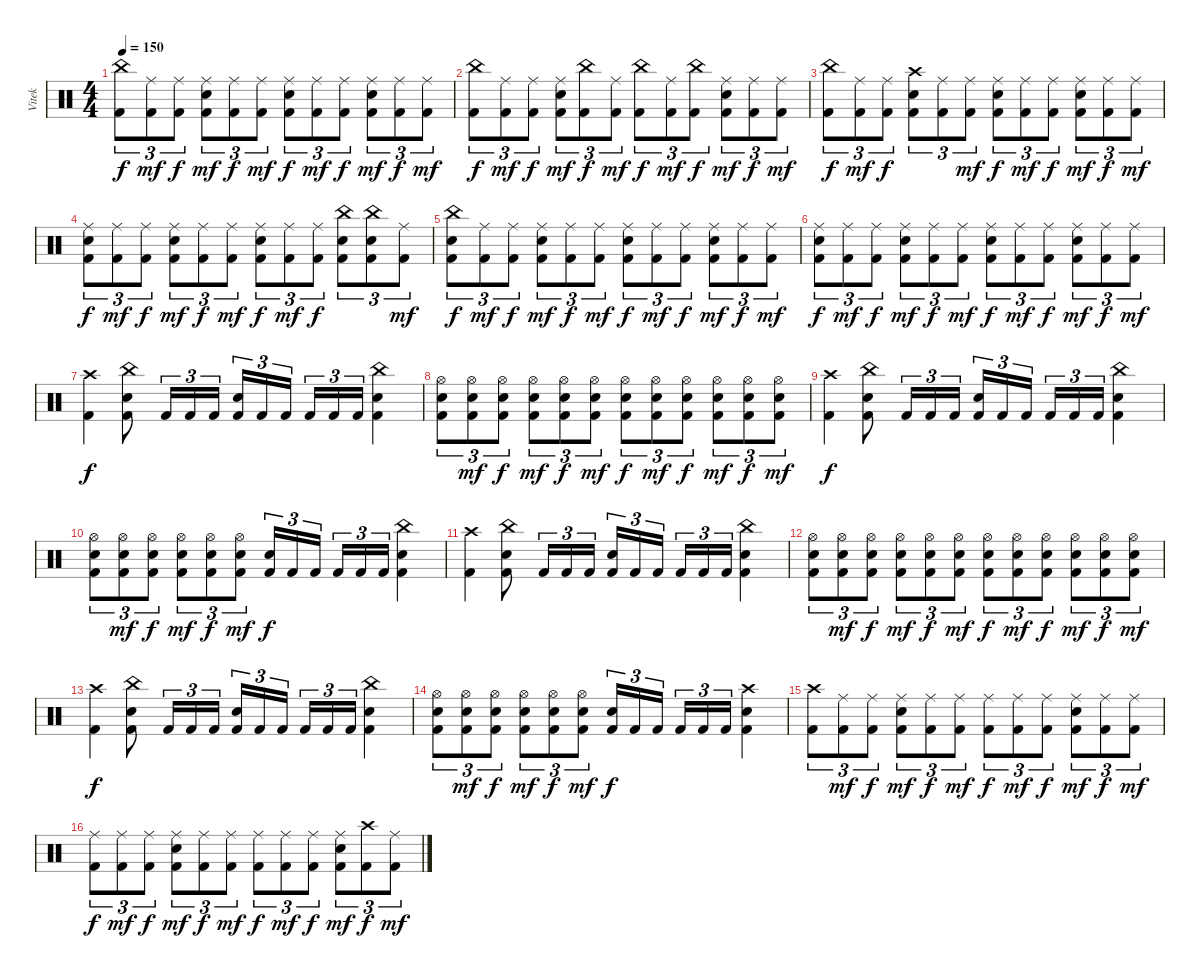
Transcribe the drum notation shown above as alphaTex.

\track ("Vitek" "Vitek") {instrument percussion}
\staff {score}
\articulation defaults
\ts (4 4)
\tempo 150
\clef neutral
\ks c
("China (hit)" "Kick (hit) 2").8{tu (3 2) dy f} ("Ride (middle)" "Kick (hit) 2").8{tu (3 2) dy mf} ("Ride (middle)" "Kick (hit) 2").8{tu (3 2) dy f} ("Ride (middle)" "Electric Snare (hit)" "Kick (hit) 2").8{tu (3 2) dy mf} ("Ride (middle)" "Kick (hit) 2").8{tu (3 2) dy f} ("Ride (middle)" "Kick (hit) 2").8{tu (3 2) dy mf} ("Ride (middle)" "Electric Snare (hit)" "Kick (hit) 2").8{tu (3 2) dy f} ("Ride (middle)" "Kick (hit) 2").8{tu (3 2) dy mf} ("Ride (middle)" "Kick (hit) 2").8{tu (3 2) dy f} ("Ride (middle)" "Electric Snare (hit)" "Kick (hit) 2").8{tu (3 2) dy mf} ("Ride (middle)" "Kick (hit) 2").8{tu (3 2) dy f} ("Ride (middle)" "Kick (hit) 2").8{tu (3 2) dy mf} |
("China (hit)" "Kick (hit) 2").8{tu (3 2) dy f} ("Ride (middle)" "Kick (hit) 2").8{tu (3 2) dy mf} ("Ride (middle)" "Kick (hit) 2").8{tu (3 2) dy f} ("Ride (middle)" "Electric Snare (hit)" "Kick (hit) 2").8{tu (3 2) dy mf} ("China (hit)" "Kick (hit) 2").8{tu (3 2) dy f} ("Ride (middle)" "Kick (hit) 2").8{tu (3 2) dy mf} ("China (hit)" "Kick (hit) 2").8{tu (3 2) dy f} ("Ride (middle)" "Kick (hit) 2").8{tu (3 2) dy mf} ("China (hit)" "Kick (hit) 2").8{tu (3 2) dy f} ("Ride (middle)" "Electric Snare (hit)" "Kick (hit) 2").8{tu (3 2) dy mf} ("Ride (middle)" "Kick (hit) 2").8{tu (3 2) dy f} ("Ride (middle)" "Kick (hit) 2").8{tu (3 2) dy mf} |
("China (hit)" "Kick (hit) 2").8{tu (3 2) dy f} ("Ride (middle)" "Kick (hit) 2").8{tu (3 2) dy mf} ("Ride (middle)" "Kick (hit) 2").8{tu (3 2) dy f} ("Crash high (hit)" "Electric Snare (hit)" "Kick (hit) 2").8{tu (3 2)} ("Ride (middle)" "Kick (hit) 2").8{tu (3 2)} ("Ride (middle)" "Kick (hit) 2").8{tu (3 2) dy mf} ("Ride (middle)" "Electric Snare (hit)" "Kick (hit) 2").8{tu (3 2) dy f} ("Ride (middle)" "Kick (hit) 2").8{tu (3 2) dy mf} ("Ride (middle)" "Kick (hit) 2").8{tu (3 2) dy f} ("Ride (middle)" "Electric Snare (hit)" "Kick (hit) 2").8{tu (3 2) dy mf} ("Ride (middle)" "Kick (hit) 2").8{tu (3 2) dy f} ("Ride (middle)" "Kick (hit) 2").8{tu (3 2) dy mf} |
("Ride (middle)" "Electric Snare (hit)" "Kick (hit) 2").8{tu (3 2) dy f} ("Ride (middle)" "Kick (hit) 2").8{tu (3 2) dy mf} ("Ride (middle)" "Kick (hit) 2").8{tu (3 2) dy f} ("Ride (middle)" "Electric Snare (hit)" "Kick (hit) 2").8{tu (3 2) dy mf} ("Ride (middle)" "Kick (hit) 2").8{tu (3 2) dy f} ("Ride (middle)" "Kick (hit) 2").8{tu (3 2) dy mf} ("Ride (middle)" "Electric Snare (hit)" "Kick (hit) 2").8{tu (3 2) dy f} ("Ride (middle)" "Kick (hit) 2").8{tu (3 2) dy mf} ("Ride (middle)" "Kick (hit) 2").8{tu (3 2) dy f} ("China (hit)" "Electric Snare (hit)" "Kick (hit) 2").8{tu (3 2)} ("China (hit)" "Electric Snare (hit)" "Kick (hit) 2").8{tu (3 2)} ("Ride (middle)" "Kick (hit) 2").8{tu (3 2) dy mf} |
("China (hit)" "Electric Snare (hit)" "Kick (hit) 2").8{tu (3 2) dy f} ("Ride (middle)" "Kick (hit) 2").8{tu (3 2) dy mf} ("Ride (middle)" "Kick (hit) 2").8{tu (3 2) dy f} ("Ride (middle)" "Electric Snare (hit)" "Kick (hit) 2").8{tu (3 2) dy mf} ("Ride (middle)" "Kick (hit) 2").8{tu (3 2) dy f} ("Ride (middle)" "Kick (hit) 2").8{tu (3 2) dy mf} ("Ride (middle)" "Electric Snare (hit)" "Kick (hit) 2").8{tu (3 2) dy f} ("Ride (middle)" "Kick (hit) 2").8{tu (3 2) dy mf} ("Ride (middle)" "Kick (hit) 2").8{tu (3 2) dy f} ("Ride (middle)" "Electric Snare (hit)" "Kick (hit) 2").8{tu (3 2) dy mf} ("Ride (middle)" "Kick (hit) 2").8{tu (3 2) dy f} ("Ride (middle)" "Kick (hit) 2").8{tu (3 2) dy mf} |
("Ride (middle)" "Electric Snare (hit)" "Kick (hit) 2").8{tu (3 2) dy f} ("Ride (middle)" "Kick (hit) 2").8{tu (3 2) dy mf} ("Ride (middle)" "Kick (hit) 2").8{tu (3 2) dy f} ("Ride (middle)" "Electric Snare (hit)" "Kick (hit) 2").8{tu (3 2) dy mf} ("Ride (middle)" "Kick (hit) 2").8{tu (3 2) dy f} ("Ride (middle)" "Kick (hit) 2").8{tu (3 2) dy mf} ("Ride (middle)" "Electric Snare (hit)" "Kick (hit) 2").8{tu (3 2) dy f} ("Ride (middle)" "Kick (hit) 2").8{tu (3 2) dy mf} ("Ride (middle)" "Kick (hit) 2").8{tu (3 2) dy f} ("Ride (middle)" "Electric Snare (hit)" "Kick (hit) 2").8{tu (3 2) dy mf} ("Ride (middle)" "Kick (hit) 2").8{tu (3 2) dy f} ("Ride (middle)" "Kick (hit) 2").8{tu (3 2) dy mf} |
("Crash high (hit)" "Kick (hit) 2").4{dy f} ("China (hit)" "Electric Snare (hit)" "Kick (hit) 2").8 "Kick (hit) 2".16{tu (3 2)} "Kick (hit) 2".16{tu (3 2)} "Kick (hit) 2".16{tu (3 2)} ("Electric Snare (hit)" "Kick (hit) 2").16{tu (3 2)} "Kick (hit) 2".16{tu (3 2)} "Kick (hit) 2".16{tu (3 2) beam splitsecondary} "Kick (hit) 2".16{tu (3 2)} "Kick (hit) 2".16{tu (3 2)} "Kick (hit) 2".16{tu (3 2)} ("China (hit)" "Electric Snare (hit)" "Kick (hit) 2").4 |
("Hi-Hat (open)" "Electric Snare (hit)" "Kick (hit) 2").8{tu (3 2)} ("Hi-Hat (open)" "Electric Snare (hit)" "Kick (hit) 2").8{tu (3 2) dy mf} ("Hi-Hat (open)" "Electric Snare (hit)" "Kick (hit) 2").8{tu (3 2) dy f} ("Hi-Hat (open)" "Electric Snare (hit)" "Kick (hit) 2").8{tu (3 2) dy mf} ("Hi-Hat (open)" "Electric Snare (hit)" "Kick (hit) 2").8{tu (3 2) dy f} ("Hi-Hat (open)" "Electric Snare (hit)" "Kick (hit) 2").8{tu (3 2) dy mf} ("Hi-Hat (open)" "Electric Snare (hit)" "Kick (hit) 2").8{tu (3 2) dy f} ("Hi-Hat (open)" "Electric Snare (hit)" "Kick (hit) 2").8{tu (3 2) dy mf} ("Hi-Hat (open)" "Electric Snare (hit)" "Kick (hit) 2").8{tu (3 2) dy f} ("Hi-Hat (open)" "Electric Snare (hit)" "Kick (hit) 2").8{tu (3 2) dy mf} ("Hi-Hat (open)" "Electric Snare (hit)" "Kick (hit) 2").8{tu (3 2) dy f} ("Hi-Hat (open)" "Electric Snare (hit)" "Kick (hit) 2").8{tu (3 2) dy mf} |
("Crash high (hit)" "Kick (hit) 2").4{dy f} ("China (hit)" "Electric Snare (hit)" "Kick (hit) 2").8 "Kick (hit) 2".16{tu (3 2)} "Kick (hit) 2".16{tu (3 2)} "Kick (hit) 2".16{tu (3 2)} ("Electric Snare (hit)" "Kick (hit) 2").16{tu (3 2)} "Kick (hit) 2".16{tu (3 2)} "Kick (hit) 2".16{tu (3 2) beam splitsecondary} "Kick (hit) 2".16{tu (3 2)} "Kick (hit) 2".16{tu (3 2)} "Kick (hit) 2".16{tu (3 2)} ("China (hit)" "Electric Snare (hit)" "Kick (hit) 2").4 |
("Hi-Hat (open)" "Electric Snare (hit)" "Kick (hit) 2").8{tu (3 2)} ("Hi-Hat (open)" "Electric Snare (hit)" "Kick (hit) 2").8{tu (3 2) dy mf} ("Hi-Hat (open)" "Electric Snare (hit)" "Kick (hit) 2").8{tu (3 2) dy f} ("Hi-Hat (open)" "Electric Snare (hit)" "Kick (hit) 2").8{tu (3 2) dy mf} ("Hi-Hat (open)" "Electric Snare (hit)" "Kick (hit) 2").8{tu (3 2) dy f} ("Hi-Hat (open)" "Electric Snare (hit)" "Kick (hit) 2").8{tu (3 2) dy mf} ("Electric Snare (hit)" "Kick (hit) 2").16{tu (3 2) dy f} "Kick (hit) 2".16{tu (3 2)} "Kick (hit) 2".16{tu (3 2) beam splitsecondary} "Kick (hit) 2".16{tu (3 2)} "Kick (hit) 2".16{tu (3 2)} "Kick (hit) 2".16{tu (3 2)} ("China (hit)" "Electric Snare (hit)" "Kick (hit) 2").4 |
("Crash high (hit)" "Kick (hit) 2").4 ("China (hit)" "Electric Snare (hit)" "Kick (hit) 2").8 "Kick (hit) 2".16{tu (3 2)} "Kick (hit) 2".16{tu (3 2)} "Kick (hit) 2".16{tu (3 2)} ("Electric Snare (hit)" "Kick (hit) 2").16{tu (3 2)} "Kick (hit) 2".16{tu (3 2)} "Kick (hit) 2".16{tu (3 2) beam splitsecondary} "Kick (hit) 2".16{tu (3 2)} "Kick (hit) 2".16{tu (3 2)} "Kick (hit) 2".16{tu (3 2)} ("China (hit)" "Electric Snare (hit)" "Kick (hit) 2").4 |
("Hi-Hat (open)" "Electric Snare (hit)" "Kick (hit) 2").8{tu (3 2)} ("Hi-Hat (open)" "Electric Snare (hit)" "Kick (hit) 2").8{tu (3 2) dy mf} ("Hi-Hat (open)" "Electric Snare (hit)" "Kick (hit) 2").8{tu (3 2) dy f} ("Hi-Hat (open)" "Electric Snare (hit)" "Kick (hit) 2").8{tu (3 2) dy mf} ("Hi-Hat (open)" "Electric Snare (hit)" "Kick (hit) 2").8{tu (3 2) dy f} ("Hi-Hat (open)" "Electric Snare (hit)" "Kick (hit) 2").8{tu (3 2) dy mf} ("Hi-Hat (open)" "Electric Snare (hit)" "Kick (hit) 2").8{tu (3 2) dy f} ("Hi-Hat (open)" "Electric Snare (hit)" "Kick (hit) 2").8{tu (3 2) dy mf} ("Hi-Hat (open)" "Electric Snare (hit)" "Kick (hit) 2").8{tu (3 2) dy f} ("Hi-Hat (open)" "Electric Snare (hit)" "Kick (hit) 2").8{tu (3 2) dy mf} ("Hi-Hat (open)" "Electric Snare (hit)" "Kick (hit) 2").8{tu (3 2) dy f} ("Hi-Hat (open)" "Electric Snare (hit)" "Kick (hit) 2").8{tu (3 2) dy mf} |
("Crash high (hit)" "Kick (hit) 2").4{dy f} ("China (hit)" "Electric Snare (hit)" "Kick (hit) 2").8 "Kick (hit) 2".16{tu (3 2)} "Kick (hit) 2".16{tu (3 2)} "Kick (hit) 2".16{tu (3 2)} ("Electric Snare (hit)" "Kick (hit) 2").16{tu (3 2)} "Kick (hit) 2".16{tu (3 2)} "Kick (hit) 2".16{tu (3 2) beam splitsecondary} "Kick (hit) 2".16{tu (3 2)} "Kick (hit) 2".16{tu (3 2)} "Kick (hit) 2".16{tu (3 2)} ("China (hit)" "Electric Snare (hit)" "Kick (hit) 2").4 |
("Hi-Hat (open)" "Electric Snare (hit)" "Kick (hit) 2").8{tu (3 2)} ("Hi-Hat (open)" "Electric Snare (hit)" "Kick (hit) 2").8{tu (3 2) dy mf} ("Hi-Hat (open)" "Electric Snare (hit)" "Kick (hit) 2").8{tu (3 2) dy f} ("Hi-Hat (open)" "Electric Snare (hit)" "Kick (hit) 2").8{tu (3 2) dy mf} ("Hi-Hat (open)" "Electric Snare (hit)" "Kick (hit) 2").8{tu (3 2) dy f} ("Hi-Hat (open)" "Electric Snare (hit)" "Kick (hit) 2").8{tu (3 2) dy mf} ("Electric Snare (hit)" "Kick (hit) 2").16{tu (3 2) dy f} "Kick (hit) 2".16{tu (3 2)} "Kick (hit) 2".16{tu (3 2) beam splitsecondary} "Kick (hit) 2".16{tu (3 2)} "Kick (hit) 2".16{tu (3 2)} "Kick (hit) 2".16{tu (3 2)} ("Crash high (hit)" "Electric Snare (hit)" "Kick (hit) 2").4 |
("Crash high (hit)" "Kick (hit) 2").8{tu (3 2)} ("Ride (middle)" "Kick (hit) 2").8{tu (3 2) dy mf} ("Ride (middle)" "Kick (hit) 2").8{tu (3 2) dy f} ("Ride (middle)" "Electric Snare (hit)" "Kick (hit) 2").8{tu (3 2) dy mf} ("Ride (middle)" "Kick (hit) 2").8{tu (3 2) dy f} ("Ride (middle)" "Kick (hit) 2").8{tu (3 2) dy mf} ("Ride (middle)" "Kick (hit) 2").8{tu (3 2) dy f} ("Ride (middle)" "Kick (hit) 2").8{tu (3 2) dy mf} ("Ride (middle)" "Kick (hit) 2").8{tu (3 2) dy f} ("Ride (middle)" "Electric Snare (hit)" "Kick (hit) 2").8{tu (3 2) dy mf} ("Ride (middle)" "Kick (hit) 2").8{tu (3 2) dy f} ("Ride (middle)" "Kick (hit) 2").8{tu (3 2) dy mf} |
("Ride (middle)" "Kick (hit) 2").8{tu (3 2) dy f} ("Ride (middle)" "Kick (hit) 2").8{tu (3 2) dy mf} ("Ride (middle)" "Kick (hit) 2").8{tu (3 2) dy f} ("Ride (middle)" "Electric Snare (hit)" "Kick (hit) 2").8{tu (3 2) dy mf} ("Ride (middle)" "Kick (hit) 2").8{tu (3 2) dy f} ("Ride (middle)" "Kick (hit) 2").8{tu (3 2) dy mf} ("Ride (middle)" "Kick (hit) 2").8{tu (3 2) dy f} ("Ride (middle)" "Kick (hit) 2").8{tu (3 2) dy mf} ("Ride (middle)" "Kick (hit) 2").8{tu (3 2) dy f} ("Ride (middle)" "Electric Snare (hit)" "Kick (hit) 2").8{tu (3 2) dy mf} ("Crash high (hit)" "Kick (hit) 2").8{tu (3 2) dy f} ("Ride (middle)" "Kick (hit) 2").8{tu (3 2) dy mf}
